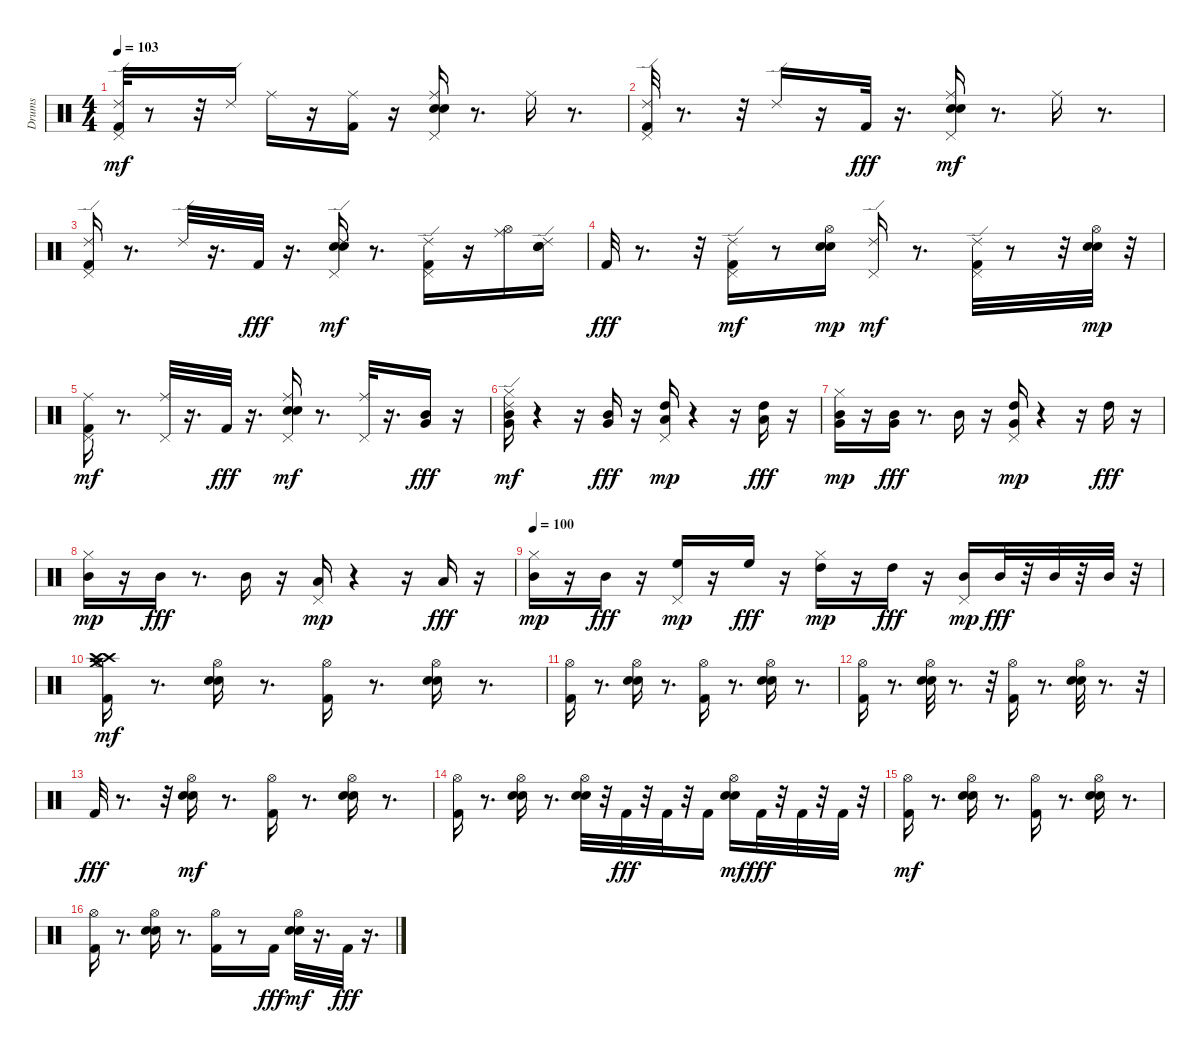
\track ("Drums" "Drums") {instrument percussion}
\staff {score}
\articulation defaults
\ts (4 4)
\tempo 103
\clef neutral
\ks c
("Kick (hit) 2" "Pedal Hi-Hat (hit)" "Ride (edge) 2").32{dy mf} r.8 r.32 "Ride (edge) 2".16 "Ride (middle)".16 r.16 ("Kick (hit) 2" "Ride (middle)").16 r.16 ("Electric Snare (hit)" "Snare (hit) 2" "Pedal Hi-Hat (hit)" "Ride (middle)").16 r.8{d} "Ride (middle)".16 r.8{d} |
("Kick (hit) 2" "Pedal Hi-Hat (hit)" "Ride (edge) 2").32 r.8{d} r.32 "Ride (edge) 2".16 r.16 "Kick (hit) 2".32{dy fff} r.16{d} ("Electric Snare (hit)" "Snare (hit) 2" "Pedal Hi-Hat (hit)" "Ride (middle)").16{dy mf} r.8{d} "Ride (middle)".16 r.8{d} |
("Kick (hit) 2" "Pedal Hi-Hat (hit)" "Ride (edge) 2").16 r.8{d} "Ride (edge) 2".32 r.16{d} "Kick (hit) 2".32{dy fff} r.16{d} ("Electric Snare (hit)" "Snare (hit) 2" "Pedal Hi-Hat (hit)" "Ride (edge) 2").16{dy mf} r.8{d} ("Kick (hit) 2" "Pedal Hi-Hat (hit)" "Ride (edge) 2").16 r.16 ("Hi-Hat (open)" "Ride (middle)").16 ("Electric Snare (hit)" "Snare (hit) 2" "Ride (edge) 2").16 |
"Kick (hit) 2".32{dy fff} r.8{d} r.32 ("Kick (hit) 2" "Pedal Hi-Hat (hit)" "Ride (edge) 2").16{dy mf} r.8 ("Electric Snare (hit)" "Snare (hit) 2" "Hi-Hat (open)").16{dy mp} ("Pedal Hi-Hat (hit)" "Ride (edge) 2").16{dy mf} r.8{d} ("Kick (hit) 2" "Pedal Hi-Hat (hit)" "Ride (edge) 2").32 r.8 r.32 ("Electric Snare (hit)" "Snare (hit) 2" "Hi-Hat (open)").32{dy mp} r.32 |
("Kick (hit) 2" "Pedal Hi-Hat (hit)" "Ride (middle)").16{dy mf} r.8{d} ("Pedal Hi-Hat (hit)" "Ride (middle)").32 r.16{d} "Kick (hit) 2".32{dy fff} r.16{d} ("Electric Snare (hit)" "Snare (hit) 2" "Pedal Hi-Hat (hit)" "Ride (middle)").16{dy mf} r.8{d} ("Pedal Hi-Hat (hit)" "Ride (middle)").32 r.16{d} ("Mid Tom (hit)" "Very Low Tom (hit)").16{dy fff} r.16 |
("Mid Tom (hit)" "Very Low Tom (hit)" "Hi-Hat (closed)" "Ride (edge) 2").16{dy mf} r.4 r.16 ("Mid Tom (hit)" "Very Low Tom (hit)").16{dy fff} r.16 ("High Tom (hit)" "Low Tom (hit)" "Pedal Hi-Hat (hit)").16{dy mp} r.4 r.16 ("Low Tom (hit)" "High Tom (hit)").16{dy fff} r.16 |
("Mid Tom (hit)" "Very Low Tom (hit)" "Hi-Hat (closed)").16{dy mp} r.16 ("Mid Tom (hit)" "Very Low Tom (hit)").16{dy fff} r.8{d} "Mid Tom (hit)".16 r.16 ("High Tom (hit)" "Very Low Tom (hit)" "Pedal Hi-Hat (hit)").16{dy mp} r.4 r.16 "High Tom (hit)".16{dy fff} r.16 |
("Mid Tom (hit)" "Hi-Hat (closed)").16{dy mp} r.16 "Mid Tom (hit)".16{dy fff} r.8{d} "Mid Tom (hit)".16 r.16 ("Low Tom (hit)" "Pedal Hi-Hat (hit)").16{dy mp} r.4 r.16 "Low Tom (hit)".16{dy fff} r.16 |
\tempo 100
("Mid Tom (hit)" "Hi-Hat (closed)").16{dy mp} r.16 "Mid Tom (hit)".16{dy fff} r.16 ("High Floor Tom (hit)" "Pedal Hi-Hat (hit)").16{dy mp} r.16 "High Floor Tom (hit)".16{dy fff} r.16 ("High Tom (hit)" "Hi-Hat (closed)").16{dy mp} r.16 "High Tom (hit)".16{dy fff} r.16 ("Mid Tom (hit)" "Pedal Hi-Hat (hit)").16{dy mp} "Mid Tom (hit)".32{dy fff} r.32 "Mid Tom (hit)".32 r.32 "Mid Tom (hit)".32 r.32 |
("Kick (hit) 2" "Crash high (hit)" "Hi-Hat (open)" "Crash high (hit)" "Crash medium (hit)").16{dy mf} r.8{d} ("Electric Snare (hit)" "Snare (hit) 2" "Hi-Hat (open)").16 r.8{d} ("Kick (hit) 2" "Hi-Hat (open)").16 r.8{d} ("Electric Snare (hit)" "Snare (hit) 2" "Hi-Hat (open)").16 r.8{d} |
("Kick (hit) 2" "Hi-Hat (open)").16 r.8{d} ("Electric Snare (hit)" "Snare (hit) 2" "Hi-Hat (open)").16 r.8{d} ("Kick (hit) 2" "Hi-Hat (open)").16 r.8{d} ("Electric Snare (hit)" "Snare (hit) 2" "Hi-Hat (open)").16 r.8{d} |
("Kick (hit) 2" "Hi-Hat (open)").16 r.8{d} ("Electric Snare (hit)" "Snare (hit) 2" "Hi-Hat (open)").32 r.8{d} r.32 ("Kick (hit) 2" "Hi-Hat (open)").16 r.8{d} ("Electric Snare (hit)" "Snare (hit) 2" "Hi-Hat (open)").32 r.8{d} r.32 |
"Kick (hit) 2".32{dy fff} r.8{d} r.32 ("Electric Snare (hit)" "Snare (hit) 2" "Hi-Hat (open)").16{dy mf} r.8{d} ("Kick (hit) 2" "Hi-Hat (open)").16 r.8{d} ("Electric Snare (hit)" "Snare (hit) 2" "Hi-Hat (open)").16 r.8{d} |
("Kick (hit) 2" "Hi-Hat (open)").16 r.8{d} ("Electric Snare (hit)" "Snare (hit) 2" "Hi-Hat (open)").16 r.8{d} ("Electric Snare (hit)" "Snare (hit) 2" "Hi-Hat (open)").32 r.32 "Kick (hit) 2".32{dy fff} r.32 "Kick (hit) 2".32 r.32 "Kick (hit) 2".16 ("Electric Snare (hit)" "Snare (hit) 2" "Hi-Hat (open)").16{dy mf} "Kick (hit) 2".32{dy fff} r.32 "Kick (hit) 2".32 r.32 "Kick (hit) 2".32 r.32 |
("Kick (hit) 2" "Hi-Hat (open)").16{dy mf} r.8{d} ("Electric Snare (hit)" "Snare (hit) 2" "Hi-Hat (open)").16 r.8{d} ("Kick (hit) 2" "Hi-Hat (open)").16 r.8{d} ("Electric Snare (hit)" "Snare (hit) 2" "Hi-Hat (open)").16 r.8{d} |
("Kick (hit) 2" "Hi-Hat (open)").16 r.8{d} ("Electric Snare (hit)" "Snare (hit) 2" "Hi-Hat (open)").16 r.8{d} ("Kick (hit) 2" "Hi-Hat (open)").16 r.8 "Kick (hit) 2".16{dy fff} ("Electric Snare (hit)" "Snare (hit) 2" "Hi-Hat (open)").32{dy mf} r.16{d} "Kick (hit) 2".32{dy fff} r.16{d}
